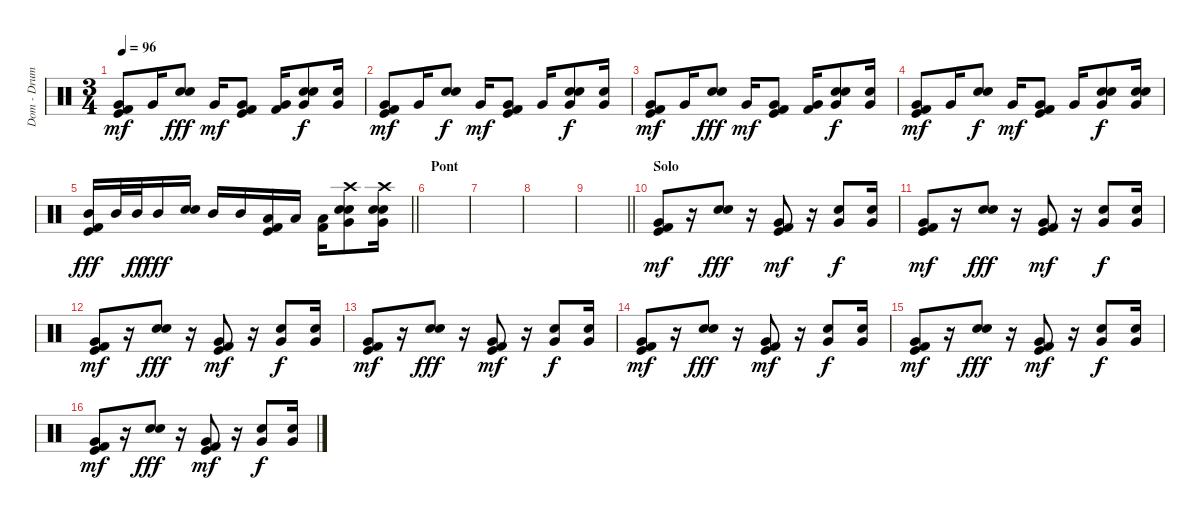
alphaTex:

\track ("Dom - Drums" "Dom - Drum") {instrument percussion}
\staff {score}
\articulation defaults
\ts (3 4)
\tempo 96
\clef neutral
\ks c
("Very Low Tom (hit)" "Kick (hit)" "Kick (hit) 2").8{dy mf} "Very Low Tom (hit)".16 ("Electric Snare (hit)" "Snare (hit) 2").8{dy fff} "Very Low Tom (hit)".16{dy mf} ("Very Low Tom (hit)" "Kick (hit)" "Kick (hit) 2").8 ("Very Low Tom (hit)" "Kick (hit) 2").16 ("Very Low Tom (hit)" "Snare (hit) 2" "Hand Clap (hit)").8{dy f} ("Very Low Tom (hit)" "Hand Clap (hit)").16 |
("Very Low Tom (hit)" "Kick (hit)" "Kick (hit) 2").8{dy mf} "Very Low Tom (hit)".16 ("Electric Snare (hit)" "Snare (hit) 2").8{dy f} "Very Low Tom (hit)".16{dy mf} ("Very Low Tom (hit)" "Kick (hit)" "Kick (hit) 2").8 "Very Low Tom (hit)".16 ("Very Low Tom (hit)" "Snare (hit) 2" "Hand Clap (hit)").8{dy f} ("Very Low Tom (hit)" "Hand Clap (hit)").16 |
("Very Low Tom (hit)" "Kick (hit)" "Kick (hit) 2").8{dy mf} "Very Low Tom (hit)".16 ("Electric Snare (hit)" "Snare (hit) 2").8{dy fff} "Very Low Tom (hit)".16{dy mf} ("Very Low Tom (hit)" "Kick (hit)" "Kick (hit) 2").8 ("Very Low Tom (hit)" "Kick (hit) 2").16 ("Very Low Tom (hit)" "Snare (hit) 2" "Hand Clap (hit)").8{dy f} ("Very Low Tom (hit)" "Hand Clap (hit)").16 |
("Very Low Tom (hit)" "Kick (hit)" "Kick (hit) 2").8{dy mf} "Very Low Tom (hit)".16 ("Electric Snare (hit)" "Snare (hit) 2").8{dy f} "Very Low Tom (hit)".16{dy mf} ("Very Low Tom (hit)" "Kick (hit)" "Kick (hit) 2").8 "Very Low Tom (hit)".16 ("Very Low Tom (hit)" "Snare (hit) 2" "Hand Clap (hit)").8{dy f} ("Very Low Tom (hit)" "Snare (hit) 2" "Hand Clap (hit)").16 |
\barLineRight lightlight
("Mid Tom (hit)" "Kick (hit)" "Kick (hit) 2").16{dy fff} "Mid Tom (hit)".32 "Mid Tom (hit)".32{dy ff} "Mid Tom (hit)".16{dy fff} ("Electric Snare (hit)" "Snare (hit) 2").16 "Mid Tom (hit)".16 "Mid Tom (hit)".16 ("Low Tom (hit)" "Kick (hit)" "Kick (hit) 2").16 "Low Tom (hit)".16 ("Low Tom (hit)" "Kick (hit) 2").16 ("Crash high (hit)" "Very Low Tom (hit)" "Snare (hit) 2" "Hand Clap (hit)").8 ("Crash high (hit)" "Very Low Tom (hit)" "Snare (hit) 2" "Hand Clap (hit)").16 |
\section ("" "Pont")
|
|
|
\barLineRight lightlight
|
\section ("" "Solo")
("Very Low Tom (hit)" "Kick (hit)" "Kick (hit) 2").8{dy mf} r.16 ("Electric Snare (hit)" "Snare (hit) 2").8{dy fff} r.16 ("Very Low Tom (hit)" "Kick (hit)" "Kick (hit) 2").8{dy mf} r.16 ("Very Low Tom (hit)" "Hand Clap (hit)").8{dy f} ("Very Low Tom (hit)" "Hand Clap (hit)").16 |
("Very Low Tom (hit)" "Kick (hit)" "Kick (hit) 2").8{dy mf} r.16 ("Electric Snare (hit)" "Snare (hit) 2").8{dy fff} r.16 ("Very Low Tom (hit)" "Kick (hit)" "Kick (hit) 2").8{dy mf} r.16 ("Very Low Tom (hit)" "Hand Clap (hit)").8{dy f} ("Very Low Tom (hit)" "Hand Clap (hit)").16 |
("Very Low Tom (hit)" "Kick (hit)" "Kick (hit) 2").8{dy mf} r.16 ("Electric Snare (hit)" "Snare (hit) 2").8{dy fff} r.16 ("Very Low Tom (hit)" "Kick (hit)" "Kick (hit) 2").8{dy mf} r.16 ("Very Low Tom (hit)" "Hand Clap (hit)").8{dy f} ("Very Low Tom (hit)" "Hand Clap (hit)").16 |
("Very Low Tom (hit)" "Kick (hit)" "Kick (hit) 2").8{dy mf} r.16 ("Electric Snare (hit)" "Snare (hit) 2").8{dy fff} r.16 ("Very Low Tom (hit)" "Kick (hit)" "Kick (hit) 2").8{dy mf} r.16 ("Very Low Tom (hit)" "Hand Clap (hit)").8{dy f} ("Very Low Tom (hit)" "Hand Clap (hit)").16 |
("Very Low Tom (hit)" "Kick (hit)" "Kick (hit) 2").8{dy mf} r.16 ("Electric Snare (hit)" "Snare (hit) 2").8{dy fff} r.16 ("Very Low Tom (hit)" "Kick (hit)" "Kick (hit) 2").8{dy mf} r.16 ("Very Low Tom (hit)" "Hand Clap (hit)").8{dy f} ("Very Low Tom (hit)" "Hand Clap (hit)").16 |
("Very Low Tom (hit)" "Kick (hit)" "Kick (hit) 2").8{dy mf} r.16 ("Electric Snare (hit)" "Snare (hit) 2").8{dy fff} r.16 ("Very Low Tom (hit)" "Kick (hit)" "Kick (hit) 2").8{dy mf} r.16 ("Very Low Tom (hit)" "Hand Clap (hit)").8{dy f} ("Very Low Tom (hit)" "Hand Clap (hit)").16 |
("Very Low Tom (hit)" "Kick (hit)" "Kick (hit) 2").8{dy mf} r.16 ("Electric Snare (hit)" "Snare (hit) 2").8{dy fff} r.16 ("Very Low Tom (hit)" "Kick (hit)" "Kick (hit) 2").8{dy mf} r.16 ("Very Low Tom (hit)" "Hand Clap (hit)").8{dy f} ("Very Low Tom (hit)" "Hand Clap (hit)").16
